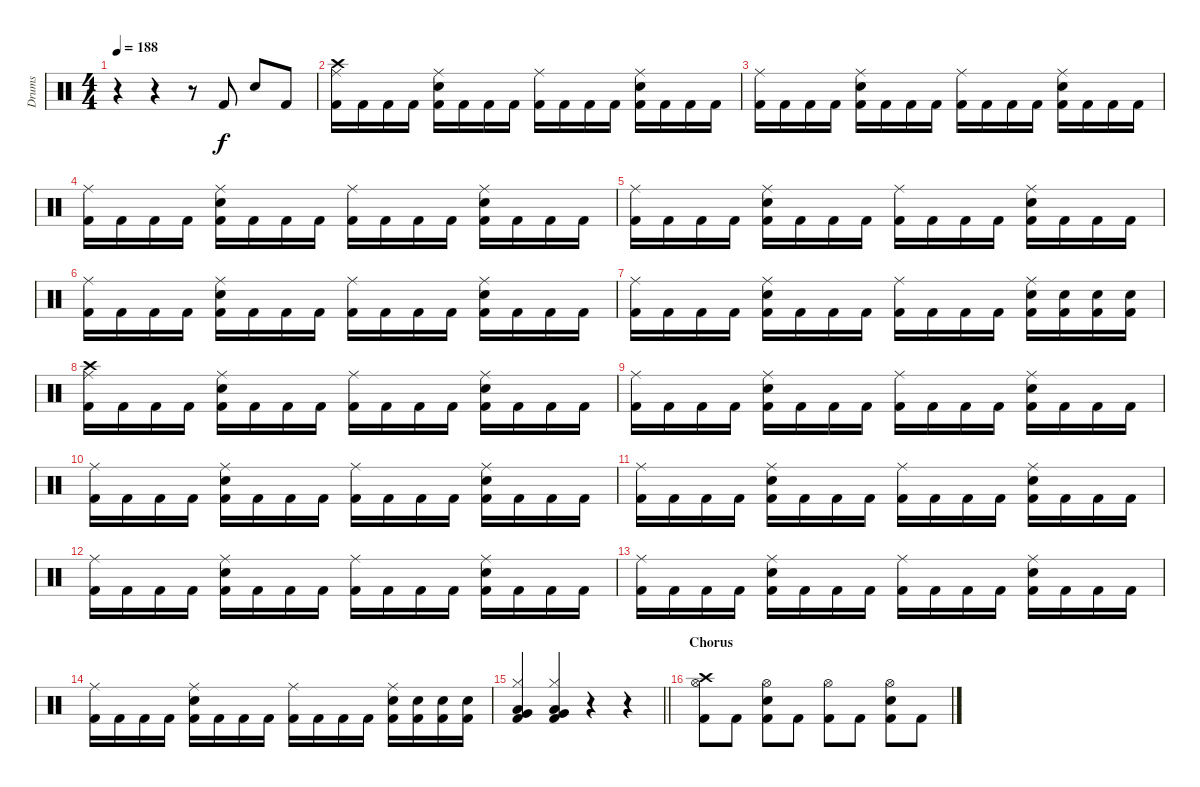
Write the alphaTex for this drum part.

\track ("Drums" "Drums") {instrument percussion}
\staff {score}
\articulation defaults
\ts (4 4)
\tempo 188
\clef neutral
\ks c
r.4{dy f} r.4 r.8 "Kick (hit) 2".8 "Snare (hit) 2".8 "Kick (hit) 2".8 |
("Crash high (hit)" "Ride (middle)" "Kick (hit) 2").16 "Kick (hit) 2".16 "Kick (hit) 2".16 "Kick (hit) 2".16 ("Ride (middle)" "Snare (hit) 2" "Kick (hit) 2").16 "Kick (hit) 2".16 "Kick (hit) 2".16 "Kick (hit) 2".16 ("Ride (middle)" "Kick (hit) 2").16 "Kick (hit) 2".16 "Kick (hit) 2".16 "Kick (hit) 2".16 ("Ride (middle)" "Snare (hit) 2" "Kick (hit) 2").16 "Kick (hit) 2".16 "Kick (hit) 2".16 "Kick (hit) 2".16 |
("Ride (middle)" "Kick (hit) 2").16 "Kick (hit) 2".16 "Kick (hit) 2".16 "Kick (hit) 2".16 ("Ride (middle)" "Snare (hit) 2" "Kick (hit) 2").16 "Kick (hit) 2".16 "Kick (hit) 2".16 "Kick (hit) 2".16 ("Ride (middle)" "Kick (hit) 2").16 "Kick (hit) 2".16 "Kick (hit) 2".16 "Kick (hit) 2".16 ("Ride (middle)" "Snare (hit) 2" "Kick (hit) 2").16 "Kick (hit) 2".16 "Kick (hit) 2".16 "Kick (hit) 2".16 |
("Ride (middle)" "Kick (hit) 2").16 "Kick (hit) 2".16 "Kick (hit) 2".16 "Kick (hit) 2".16 ("Ride (middle)" "Snare (hit) 2" "Kick (hit) 2").16 "Kick (hit) 2".16 "Kick (hit) 2".16 "Kick (hit) 2".16 ("Ride (middle)" "Kick (hit) 2").16 "Kick (hit) 2".16 "Kick (hit) 2".16 "Kick (hit) 2".16 ("Ride (middle)" "Snare (hit) 2" "Kick (hit) 2").16 "Kick (hit) 2".16 "Kick (hit) 2".16 "Kick (hit) 2".16 |
("Ride (middle)" "Kick (hit) 2").16 "Kick (hit) 2".16 "Kick (hit) 2".16 "Kick (hit) 2".16 ("Ride (middle)" "Snare (hit) 2" "Kick (hit) 2").16 "Kick (hit) 2".16 "Kick (hit) 2".16 "Kick (hit) 2".16 ("Ride (middle)" "Kick (hit) 2").16 "Kick (hit) 2".16 "Kick (hit) 2".16 "Kick (hit) 2".16 ("Ride (middle)" "Snare (hit) 2" "Kick (hit) 2").16 "Kick (hit) 2".16 "Kick (hit) 2".16 "Kick (hit) 2".16 |
("Ride (middle)" "Kick (hit) 2").16 "Kick (hit) 2".16 "Kick (hit) 2".16 "Kick (hit) 2".16 ("Ride (middle)" "Snare (hit) 2" "Kick (hit) 2").16 "Kick (hit) 2".16 "Kick (hit) 2".16 "Kick (hit) 2".16 ("Ride (middle)" "Kick (hit) 2").16 "Kick (hit) 2".16 "Kick (hit) 2".16 "Kick (hit) 2".16 ("Ride (middle)" "Snare (hit) 2" "Kick (hit) 2").16 "Kick (hit) 2".16 "Kick (hit) 2".16 "Kick (hit) 2".16 |
("Ride (middle)" "Kick (hit) 2").16 "Kick (hit) 2".16 "Kick (hit) 2".16 "Kick (hit) 2".16 ("Ride (middle)" "Snare (hit) 2" "Kick (hit) 2").16 "Kick (hit) 2".16 "Kick (hit) 2".16 "Kick (hit) 2".16 ("Ride (middle)" "Kick (hit) 2").16 "Kick (hit) 2".16 "Kick (hit) 2".16 "Kick (hit) 2".16 ("Ride (middle)" "Snare (hit) 2" "Kick (hit) 2").16 ("Snare (hit) 2" "Kick (hit) 2").16 ("Snare (hit) 2" "Kick (hit) 2").16 ("Snare (hit) 2" "Kick (hit) 2").16 |
("Crash high (hit)" "Ride (middle)" "Kick (hit) 2").16 "Kick (hit) 2".16 "Kick (hit) 2".16 "Kick (hit) 2".16 ("Ride (middle)" "Snare (hit) 2" "Kick (hit) 2").16 "Kick (hit) 2".16 "Kick (hit) 2".16 "Kick (hit) 2".16 ("Ride (middle)" "Kick (hit) 2").16 "Kick (hit) 2".16 "Kick (hit) 2".16 "Kick (hit) 2".16 ("Ride (middle)" "Snare (hit) 2" "Kick (hit) 2").16 "Kick (hit) 2".16 "Kick (hit) 2".16 "Kick (hit) 2".16 |
("Ride (middle)" "Kick (hit) 2").16 "Kick (hit) 2".16 "Kick (hit) 2".16 "Kick (hit) 2".16 ("Ride (middle)" "Snare (hit) 2" "Kick (hit) 2").16 "Kick (hit) 2".16 "Kick (hit) 2".16 "Kick (hit) 2".16 ("Ride (middle)" "Kick (hit) 2").16 "Kick (hit) 2".16 "Kick (hit) 2".16 "Kick (hit) 2".16 ("Ride (middle)" "Snare (hit) 2" "Kick (hit) 2").16 "Kick (hit) 2".16 "Kick (hit) 2".16 "Kick (hit) 2".16 |
("Ride (middle)" "Kick (hit) 2").16 "Kick (hit) 2".16 "Kick (hit) 2".16 "Kick (hit) 2".16 ("Ride (middle)" "Snare (hit) 2" "Kick (hit) 2").16 "Kick (hit) 2".16 "Kick (hit) 2".16 "Kick (hit) 2".16 ("Ride (middle)" "Kick (hit) 2").16 "Kick (hit) 2".16 "Kick (hit) 2".16 "Kick (hit) 2".16 ("Ride (middle)" "Snare (hit) 2" "Kick (hit) 2").16 "Kick (hit) 2".16 "Kick (hit) 2".16 "Kick (hit) 2".16 |
("Ride (middle)" "Kick (hit) 2").16 "Kick (hit) 2".16 "Kick (hit) 2".16 "Kick (hit) 2".16 ("Ride (middle)" "Snare (hit) 2" "Kick (hit) 2").16 "Kick (hit) 2".16 "Kick (hit) 2".16 "Kick (hit) 2".16 ("Ride (middle)" "Kick (hit) 2").16 "Kick (hit) 2".16 "Kick (hit) 2".16 "Kick (hit) 2".16 ("Ride (middle)" "Snare (hit) 2" "Kick (hit) 2").16 "Kick (hit) 2".16 "Kick (hit) 2".16 "Kick (hit) 2".16 |
("Ride (middle)" "Kick (hit) 2").16 "Kick (hit) 2".16 "Kick (hit) 2".16 "Kick (hit) 2".16 ("Ride (middle)" "Snare (hit) 2" "Kick (hit) 2").16 "Kick (hit) 2".16 "Kick (hit) 2".16 "Kick (hit) 2".16 ("Ride (middle)" "Kick (hit) 2").16 "Kick (hit) 2".16 "Kick (hit) 2".16 "Kick (hit) 2".16 ("Ride (middle)" "Snare (hit) 2" "Kick (hit) 2").16 "Kick (hit) 2".16 "Kick (hit) 2".16 "Kick (hit) 2".16 |
("Ride (middle)" "Kick (hit) 2").16 "Kick (hit) 2".16 "Kick (hit) 2".16 "Kick (hit) 2".16 ("Ride (middle)" "Snare (hit) 2" "Kick (hit) 2").16 "Kick (hit) 2".16 "Kick (hit) 2".16 "Kick (hit) 2".16 ("Ride (middle)" "Kick (hit) 2").16 "Kick (hit) 2".16 "Kick (hit) 2".16 "Kick (hit) 2".16 ("Ride (middle)" "Snare (hit) 2" "Kick (hit) 2").16 "Kick (hit) 2".16 "Kick (hit) 2".16 "Kick (hit) 2".16 |
("Ride (middle)" "Kick (hit) 2").16 "Kick (hit) 2".16 "Kick (hit) 2".16 "Kick (hit) 2".16 ("Ride (middle)" "Snare (hit) 2" "Kick (hit) 2").16 "Kick (hit) 2".16 "Kick (hit) 2".16 "Kick (hit) 2".16 ("Ride (middle)" "Kick (hit) 2").16 "Kick (hit) 2".16 "Kick (hit) 2".16 "Kick (hit) 2".16 ("Ride (middle)" "Snare (hit) 2" "Kick (hit) 2").16 ("Snare (hit) 2" "Kick (hit) 2").16 ("Snare (hit) 2" "Kick (hit) 2").16 ("Snare (hit) 2" "Kick (hit) 2").16 |
\barLineRight lightlight
("Hi-Hat (closed)" "Very Low Tom (hit)" "Low Floor Tom (hit)" "Kick (hit) 2").4 ("Hi-Hat (closed)" "Very Low Tom (hit)" "Low Floor Tom (hit)" "Kick (hit) 2").4 r.4 r.4 |
\section ("" "Chorus")
("Crash high (hit)" "Hi-Hat (open)" "Kick (hit) 2").8 "Kick (hit) 2".8 ("Hi-Hat (open)" "Snare (hit) 2" "Kick (hit) 2").8 "Kick (hit) 2".8 ("Hi-Hat (open)" "Kick (hit) 2").8 "Kick (hit) 2".8 ("Hi-Hat (open)" "Snare (hit) 2" "Kick (hit) 2").8 "Kick (hit) 2".8
